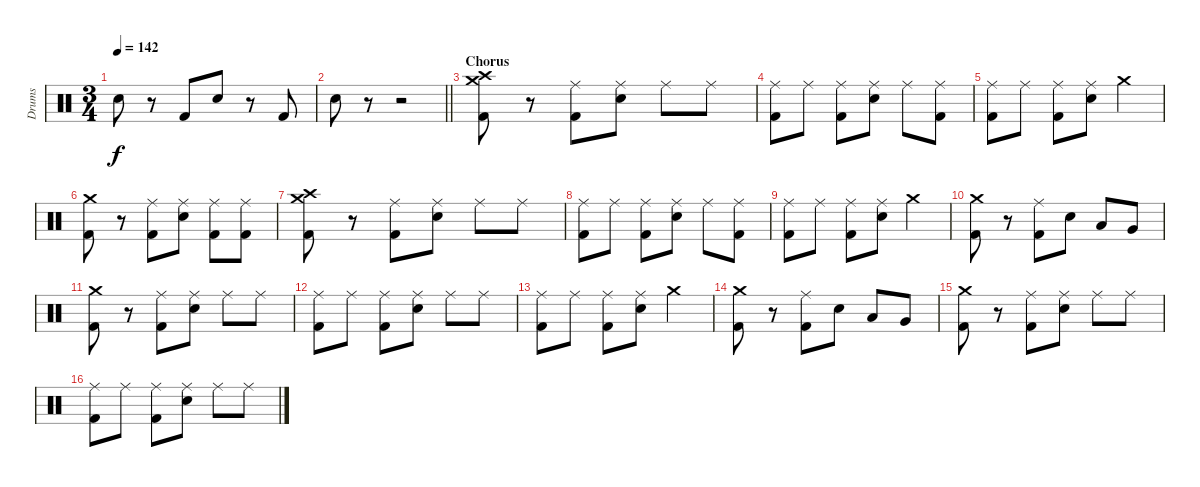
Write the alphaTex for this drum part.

\track ("Drums" "Drums") {instrument percussion}
\staff {score}
\articulation defaults
\ts (3 4)
\tempo 142
\clef neutral
\ks c "Electric Snare (hit)".8{dy f}
r.8 "Kick (hit) 2".8 "Electric Snare (hit)".8 r.8 "Kick (hit) 2".8 |
\barLineRight lightlight "Electric Snare (hit)".8
r.8 r.2 |
\section ("" "Chorus")
("Crash medium (hit)" "Crash high (hit)" "Kick (hit) 2").8 r.8 ("Ride (middle)" "Kick (hit) 2").8 ("Ride (middle)" "Electric Snare (hit)").8 "Ride (middle)".8 "Ride (middle)".8 |
("Ride (middle)" "Kick (hit) 2").8 "Ride (middle)".8 ("Ride (middle)" "Kick (hit) 2").8 ("Ride (middle)" "Electric Snare (hit)").8 "Ride (middle)".8 ("Ride (middle)" "Kick (hit) 2").8 |
("Ride (middle)" "Kick (hit) 2").8 "Ride (middle)".8 ("Ride (middle)" "Kick (hit) 2").8 ("Ride (middle)" "Electric Snare (hit)").8 "Crash medium (hit)".4 |
("Crash medium (hit)" "Kick (hit) 2").8 r.8 ("Ride (middle)" "Kick (hit) 2").8 ("Ride (middle)" "Electric Snare (hit)").8 ("Ride (middle)" "Kick (hit) 2").8 ("Ride (middle)" "Kick (hit) 2").8 |
("Crash medium (hit)" "Crash high (hit)" "Kick (hit) 2").8 r.8 ("Ride (middle)" "Kick (hit) 2").8 ("Ride (middle)" "Electric Snare (hit)").8 "Ride (middle)".8 "Ride (middle)".8 |
("Ride (middle)" "Kick (hit) 2").8 "Ride (middle)".8 ("Ride (middle)" "Kick (hit) 2").8 ("Ride (middle)" "Electric Snare (hit)").8 "Ride (middle)".8 ("Ride (middle)" "Kick (hit) 2").8 |
("Ride (middle)" "Kick (hit) 2").8 "Ride (middle)".8 ("Ride (middle)" "Kick (hit) 2").8 ("Ride (middle)" "Electric Snare (hit)").8 "Crash medium (hit)".4 |
("Crash medium (hit)" "Kick (hit) 2").8 r.8 ("Ride (middle)" "Kick (hit) 2").8 "Electric Snare (hit)".8 "Low Tom (hit)".8 "Very Low Tom (hit)".8 |
("Crash medium (hit)" "Kick (hit) 2").8 r.8 ("Ride (middle)" "Kick (hit) 2").8 ("Ride (middle)" "Electric Snare (hit)").8 "Ride (middle)".8 "Ride (middle)".8 |
("Ride (middle)" "Kick (hit) 2").8 "Ride (middle)".8 ("Ride (middle)" "Kick (hit) 2").8 ("Ride (middle)" "Electric Snare (hit)").8 "Ride (middle)".8 "Ride (middle)".8 |
("Ride (middle)" "Kick (hit) 2").8 "Ride (middle)".8 ("Ride (middle)" "Kick (hit) 2").8 ("Ride (middle)" "Electric Snare (hit)").8 "Crash medium (hit)".4 |
("Crash medium (hit)" "Kick (hit) 2").8 r.8 ("Ride (middle)" "Kick (hit) 2").8 "Electric Snare (hit)".8 "Low Tom (hit)".8 "Very Low Tom (hit)".8 |
("Crash medium (hit)" "Kick (hit) 2").8 r.8 ("Ride (middle)" "Kick (hit) 2").8 ("Ride (middle)" "Electric Snare (hit)").8 "Ride (middle)".8 "Ride (middle)".8 |
("Ride (middle)" "Kick (hit) 2").8 "Ride (middle)".8 ("Ride (middle)" "Kick (hit) 2").8 ("Ride (middle)" "Electric Snare (hit)").8 "Ride (middle)".8 "Ride (middle)".8
